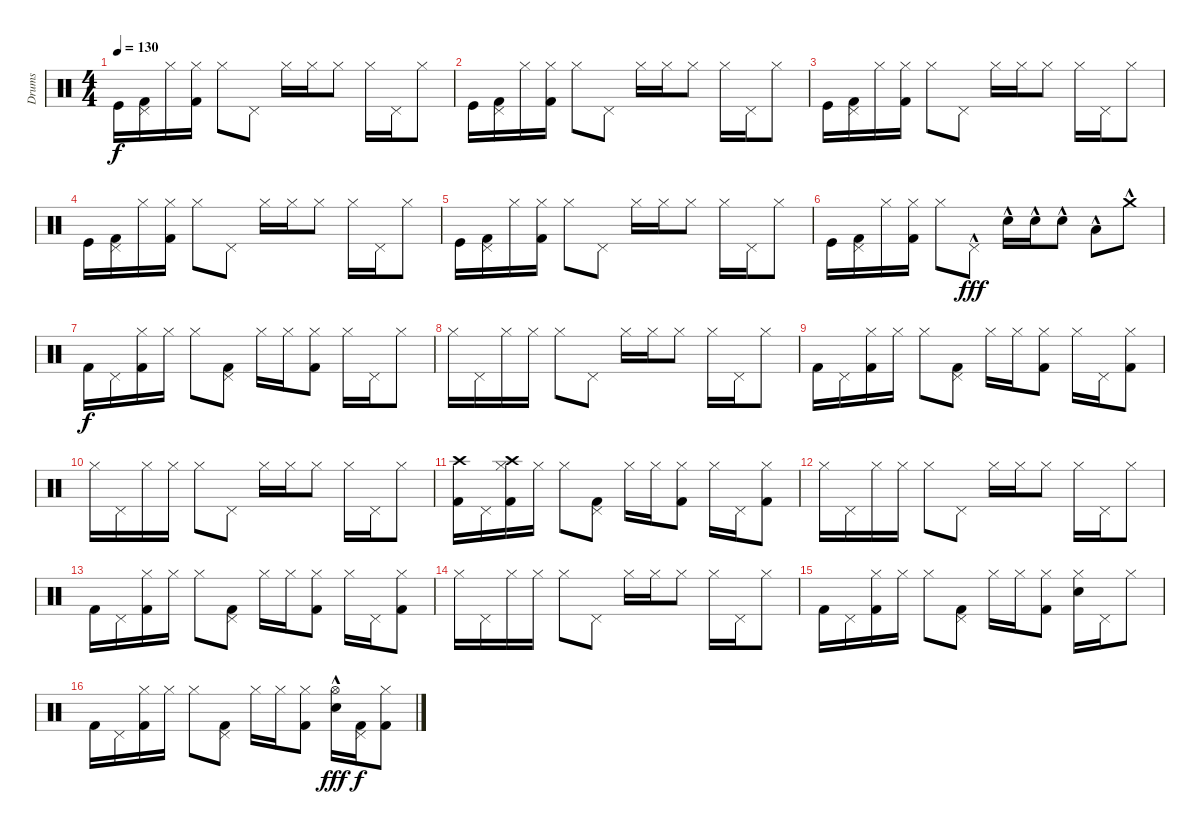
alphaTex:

\track ("Drums" "Drums") {instrument percussion}
\staff {score}
\articulation defaults
\ts (4 4)
\tempo 130
\clef neutral
\ks c "Kick (hit)".16{dy f}
("Pedal Hi-Hat (hit)" "Kick (hit) 2").16 "Hi-Hat (closed)".16 ("Hi-Hat (closed)" "Kick (hit) 2").16 "Hi-Hat (closed)".8 "Pedal Hi-Hat (hit)".8 "Hi-Hat (closed)".16 "Hi-Hat (closed)".16 "Hi-Hat (closed)".8 "Hi-Hat (closed)".16 "Pedal Hi-Hat (hit)".16 "Hi-Hat (closed)".8 |
"Kick (hit)".16 ("Pedal Hi-Hat (hit)" "Kick (hit) 2").16 "Hi-Hat (closed)".16 ("Hi-Hat (closed)" "Kick (hit) 2").16 "Hi-Hat (closed)".8 "Pedal Hi-Hat (hit)".8 "Hi-Hat (closed)".16 "Hi-Hat (closed)".16 "Hi-Hat (closed)".8 "Hi-Hat (closed)".16 "Pedal Hi-Hat (hit)".16 "Hi-Hat (closed)".8 |
"Kick (hit)".16 ("Pedal Hi-Hat (hit)" "Kick (hit) 2").16 "Hi-Hat (closed)".16 ("Hi-Hat (closed)" "Kick (hit) 2").16 "Hi-Hat (closed)".8 "Pedal Hi-Hat (hit)".8 "Hi-Hat (closed)".16 "Hi-Hat (closed)".16 "Hi-Hat (closed)".8 "Hi-Hat (closed)".16 "Pedal Hi-Hat (hit)".16 "Hi-Hat (closed)".8 |
"Kick (hit)".16 ("Pedal Hi-Hat (hit)" "Kick (hit) 2").16 "Hi-Hat (closed)".16 ("Hi-Hat (closed)" "Kick (hit) 2").16 "Hi-Hat (closed)".8 "Pedal Hi-Hat (hit)".8 "Hi-Hat (closed)".16 "Hi-Hat (closed)".16 "Hi-Hat (closed)".8 "Hi-Hat (closed)".16 "Pedal Hi-Hat (hit)".16 "Hi-Hat (closed)".8 |
"Kick (hit)".16 ("Pedal Hi-Hat (hit)" "Kick (hit) 2").16 "Hi-Hat (closed)".16 ("Hi-Hat (closed)" "Kick (hit) 2").16 "Hi-Hat (closed)".8 "Pedal Hi-Hat (hit)".8 "Hi-Hat (closed)".16 "Hi-Hat (closed)".16 "Hi-Hat (closed)".8 "Hi-Hat (closed)".16 "Pedal Hi-Hat (hit)".16 "Hi-Hat (closed)".8 |
"Kick (hit)".16 ("Pedal Hi-Hat (hit)" "Kick (hit) 2").16 "Hi-Hat (closed)".16 ("Hi-Hat (closed)" "Kick (hit) 2").16 "Hi-Hat (closed)".8 "Pedal Hi-Hat (hit)"{hac}.8{dy fff} "Electric Snare (hit)"{hac}.16 "Electric Snare (hit)"{hac}.16 "Electric Snare (hit)"{hac}.8 "Low Floor Tom (hit)"{hac}.8 "Crash medium (hit)"{hac}.8 |
"Kick (hit) 2".16{dy f} "Pedal Hi-Hat (hit)".16 ("Hi-Hat (closed)" "Kick (hit) 2").16 "Hi-Hat (closed)".16 "Hi-Hat (closed)".8 ("Pedal Hi-Hat (hit)" "Kick (hit) 2").8 "Hi-Hat (closed)".16 "Hi-Hat (closed)".16 ("Hi-Hat (closed)" "Kick (hit) 2").8 "Hi-Hat (closed)".16 "Pedal Hi-Hat (hit)".16 "Hi-Hat (closed)".8 |
"Hi-Hat (closed)".16 "Pedal Hi-Hat (hit)".16 "Hi-Hat (closed)".16 "Hi-Hat (closed)".16 "Hi-Hat (closed)".8 "Pedal Hi-Hat (hit)".8 "Hi-Hat (closed)".16 "Hi-Hat (closed)".16 "Hi-Hat (closed)".8 "Hi-Hat (closed)".16 "Pedal Hi-Hat (hit)".16 "Hi-Hat (closed)".8 |
"Kick (hit) 2".16 "Pedal Hi-Hat (hit)".16 ("Hi-Hat (closed)" "Kick (hit) 2").16 "Hi-Hat (closed)".16 "Hi-Hat (closed)".8 ("Pedal Hi-Hat (hit)" "Kick (hit) 2").8 "Hi-Hat (closed)".16 "Hi-Hat (closed)".16 ("Hi-Hat (closed)" "Kick (hit) 2").8 "Hi-Hat (closed)".16 "Pedal Hi-Hat (hit)".16 ("Hi-Hat (closed)" "Kick (hit) 2").8 |
"Hi-Hat (closed)".16 "Pedal Hi-Hat (hit)".16 "Hi-Hat (closed)".16 "Hi-Hat (closed)".16 "Hi-Hat (closed)".8 "Pedal Hi-Hat (hit)".8 "Hi-Hat (closed)".16 "Hi-Hat (closed)".16 "Hi-Hat (closed)".8 "Hi-Hat (closed)".16 "Pedal Hi-Hat (hit)".16 "Hi-Hat (closed)".8 |
("Crash high (hit)" "Kick (hit) 2").16 "Pedal Hi-Hat (hit)".16 ("Hi-Hat (closed)" "Crash high (hit)" "Kick (hit) 2").16 "Hi-Hat (closed)".16 "Hi-Hat (closed)".8 ("Pedal Hi-Hat (hit)" "Kick (hit) 2").8 "Hi-Hat (closed)".16 "Hi-Hat (closed)".16 ("Hi-Hat (closed)" "Kick (hit) 2").8 "Hi-Hat (closed)".16 "Pedal Hi-Hat (hit)".16 ("Hi-Hat (closed)" "Kick (hit) 2").8 |
"Hi-Hat (closed)".16 "Pedal Hi-Hat (hit)".16 "Hi-Hat (closed)".16 "Hi-Hat (closed)".16 "Hi-Hat (closed)".8 "Pedal Hi-Hat (hit)".8 "Hi-Hat (closed)".16 "Hi-Hat (closed)".16 "Hi-Hat (closed)".8 "Hi-Hat (closed)".16 "Pedal Hi-Hat (hit)".16 "Hi-Hat (closed)".8 |
"Kick (hit) 2".16 "Pedal Hi-Hat (hit)".16 ("Hi-Hat (closed)" "Kick (hit) 2").16 "Hi-Hat (closed)".16 "Hi-Hat (closed)".8 ("Pedal Hi-Hat (hit)" "Kick (hit) 2").8 "Hi-Hat (closed)".16 "Hi-Hat (closed)".16 ("Hi-Hat (closed)" "Kick (hit) 2").8 "Hi-Hat (closed)".16 "Pedal Hi-Hat (hit)".16 ("Hi-Hat (closed)" "Kick (hit) 2").8 |
"Hi-Hat (closed)".16 "Pedal Hi-Hat (hit)".16 "Hi-Hat (closed)".16 "Hi-Hat (closed)".16 "Hi-Hat (closed)".8 "Pedal Hi-Hat (hit)".8 "Hi-Hat (closed)".16 "Hi-Hat (closed)".16 "Hi-Hat (closed)".8 "Hi-Hat (closed)".16 "Pedal Hi-Hat (hit)".16 "Hi-Hat (closed)".8 |
"Kick (hit) 2".16 "Pedal Hi-Hat (hit)".16 ("Hi-Hat (closed)" "Kick (hit) 2").16 "Hi-Hat (closed)".16 "Hi-Hat (closed)".8 ("Pedal Hi-Hat (hit)" "Kick (hit) 2").8 "Hi-Hat (closed)".16 "Hi-Hat (closed)".16 ("Hi-Hat (closed)" "Kick (hit) 2").8 ("Hi-Hat (closed)" "Snare (hit) 2").16 "Pedal Hi-Hat (hit)".16 "Hi-Hat (closed)".8 |
"Kick (hit) 2".16 "Pedal Hi-Hat (hit)".16 ("Hi-Hat (closed)" "Kick (hit) 2").16 "Hi-Hat (closed)".16 "Hi-Hat (closed)".8 ("Pedal Hi-Hat (hit)" "Kick (hit) 2").8 "Hi-Hat (closed)".16 "Hi-Hat (closed)".16 ("Hi-Hat (closed)" "Kick (hit) 2").8 ("Hi-Hat (open)" "Snare (hit) 2"{hac}).16{dy fff} ("Pedal Hi-Hat (hit)" "Kick (hit) 2").16{dy f} ("Hi-Hat (closed)" "Kick (hit) 2").8
